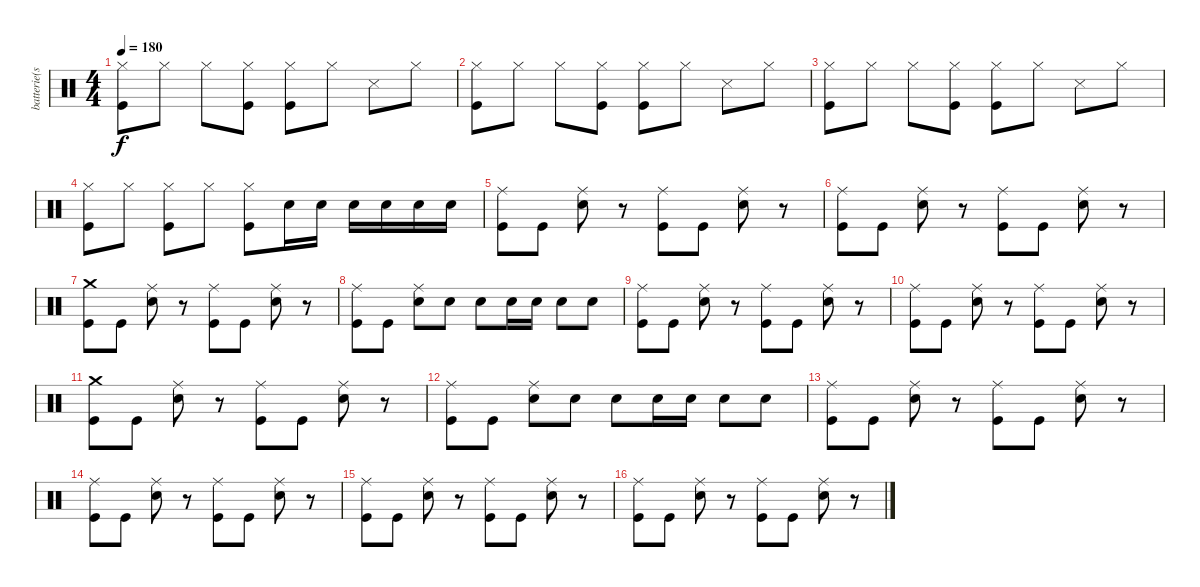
\track ("batterie(scott)" "batterie(s") {instrument percussion}
\staff {score}
\articulation defaults
\ts (4 4)
\tempo 180
\clef neutral
\ks c
("Hi-Hat (closed)" "Kick (hit)").8{dy f} "Hi-Hat (closed)".8 "Hi-Hat (closed)".8 ("Hi-Hat (closed)" "Kick (hit)").8 ("Hi-Hat (closed)" "Kick (hit)").8 "Hi-Hat (closed)".8 "Snare (side stick) 3".8 "Hi-Hat (closed)".8 |
("Hi-Hat (closed)" "Kick (hit)").8 "Hi-Hat (closed)".8 "Hi-Hat (closed)".8 ("Hi-Hat (closed)" "Kick (hit)").8 ("Hi-Hat (closed)" "Kick (hit)").8 "Hi-Hat (closed)".8 "Snare (side stick) 3".8 "Hi-Hat (closed)".8 |
("Hi-Hat (closed)" "Kick (hit)").8 "Hi-Hat (closed)".8 "Hi-Hat (closed)".8 ("Hi-Hat (closed)" "Kick (hit)").8 ("Hi-Hat (closed)" "Kick (hit)").8 "Hi-Hat (closed)".8 "Snare (side stick) 3".8 "Hi-Hat (closed)".8 |
("Hi-Hat (closed)" "Kick (hit)").8 "Hi-Hat (closed)".8 ("Hi-Hat (closed)" "Kick (hit)").8 "Hi-Hat (closed)".8 ("Hi-Hat (closed)" "Kick (hit)").8 "Snare (hit) 2".16 "Snare (hit) 2".16 "Snare (hit) 2".16 "Snare (hit) 2".16 "Snare (hit) 2".16 "Snare (hit) 2".16 |
("Ride (middle)" "Kick (hit)").8 "Kick (hit)".8 ("Ride (middle)" "Snare (hit) 2").8 r.8 ("Ride (middle)" "Kick (hit)").8 "Kick (hit)".8 ("Ride (middle)" "Snare (hit) 2").8 r.8 |
("Ride (middle)" "Kick (hit)").8 "Kick (hit)".8 ("Ride (middle)" "Snare (hit) 2").8 r.8 ("Ride (middle)" "Kick (hit)").8 "Kick (hit)".8 ("Ride (middle)" "Snare (hit) 2").8 r.8 |
("Crash medium (hit)" "Kick (hit)").8 "Kick (hit)".8 ("Ride (middle)" "Snare (hit) 2").8 r.8 ("Ride (middle)" "Kick (hit)").8 "Kick (hit)".8 ("Ride (middle)" "Snare (hit) 2").8 r.8 |
("Ride (middle)" "Kick (hit)").8 "Kick (hit)".8 ("Ride (middle)" "Snare (hit) 2").8 "Snare (hit) 2".8 "Snare (hit) 2".8 "Snare (hit) 2".16 "Snare (hit) 2".16 "Snare (hit) 2".8 "Snare (hit) 2".8 |
("Ride (middle)" "Kick (hit)").8 "Kick (hit)".8 ("Ride (middle)" "Snare (hit) 2").8 r.8 ("Ride (middle)" "Kick (hit)").8 "Kick (hit)".8 ("Ride (middle)" "Snare (hit) 2").8 r.8 |
("Ride (middle)" "Kick (hit)").8 "Kick (hit)".8 ("Ride (middle)" "Snare (hit) 2").8 r.8 ("Ride (middle)" "Kick (hit)").8 "Kick (hit)".8 ("Ride (middle)" "Snare (hit) 2").8 r.8 |
("Crash medium (hit)" "Kick (hit)").8 "Kick (hit)".8 ("Ride (middle)" "Snare (hit) 2").8 r.8 ("Ride (middle)" "Kick (hit)").8 "Kick (hit)".8 ("Ride (middle)" "Snare (hit) 2").8 r.8 |
("Ride (middle)" "Kick (hit)").8 "Kick (hit)".8 ("Ride (middle)" "Snare (hit) 2").8 "Snare (hit) 2".8 "Snare (hit) 2".8 "Snare (hit) 2".16 "Snare (hit) 2".16 "Snare (hit) 2".8 "Snare (hit) 2".8 |
("Ride (middle)" "Kick (hit)").8 "Kick (hit)".8 ("Ride (middle)" "Snare (hit) 2").8 r.8 ("Ride (middle)" "Kick (hit)").8 "Kick (hit)".8 ("Ride (middle)" "Snare (hit) 2").8 r.8 |
("Ride (middle)" "Kick (hit)").8 "Kick (hit)".8 ("Ride (middle)" "Snare (hit) 2").8 r.8 ("Ride (middle)" "Kick (hit)").8 "Kick (hit)".8 ("Ride (middle)" "Snare (hit) 2").8 r.8 |
("Ride (middle)" "Kick (hit)").8 "Kick (hit)".8 ("Ride (middle)" "Snare (hit) 2").8 r.8 ("Ride (middle)" "Kick (hit)").8 "Kick (hit)".8 ("Ride (middle)" "Snare (hit) 2").8 r.8 |
("Ride (middle)" "Kick (hit)").8 "Kick (hit)".8 ("Ride (middle)" "Snare (hit) 2").8 r.8 ("Ride (middle)" "Kick (hit)").8 "Kick (hit)".8 ("Ride (middle)" "Snare (hit) 2").8 r.8
